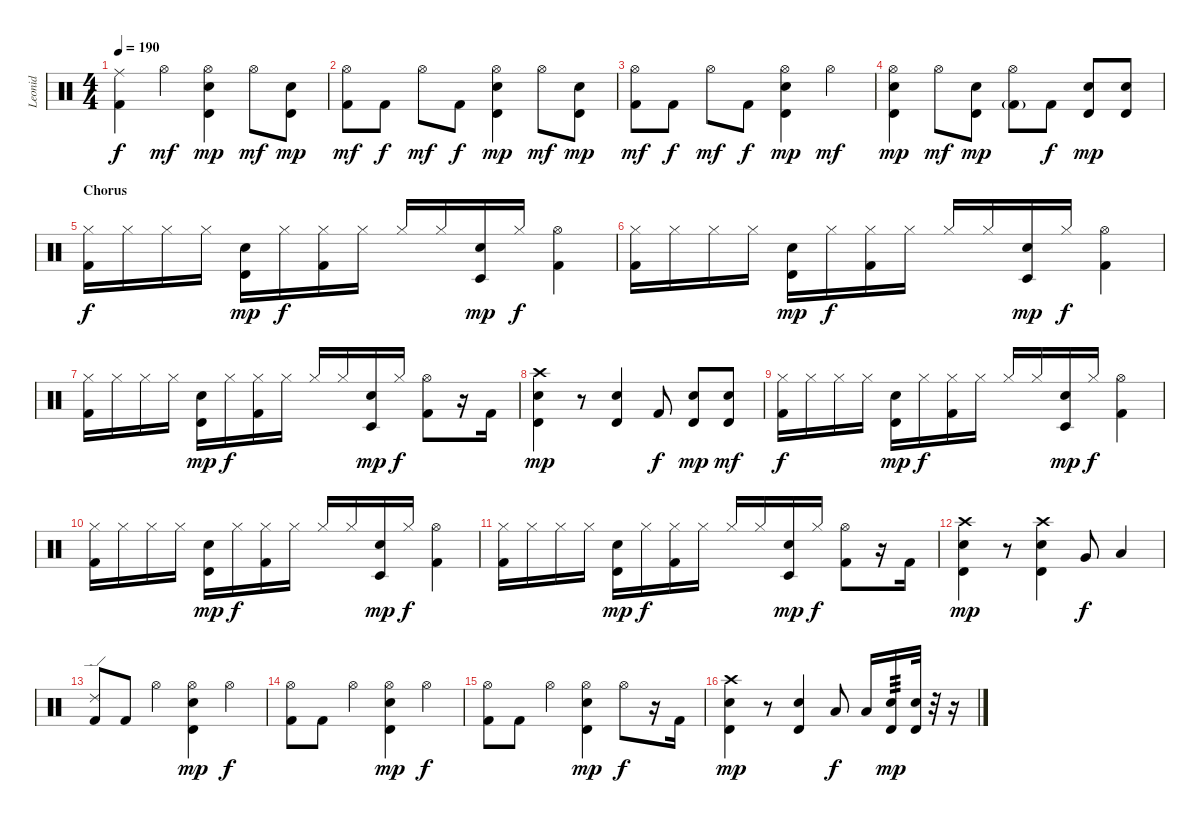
\track ("Leonid" "Leonid") {instrument percussion}
\staff {score}
\articulation defaults
\ts (4 4)
\tempo 190
\clef neutral
\ks c
("Ride (middle)" "Kick (hit) 2").4{dy f} "Hi-Hat (open)".4{dy mf} ("Hi-Hat (open)" "Timbale high (hit)" "Electric Snare (hit)").4{dy mp} "Hi-Hat (open)".8{dy mf} ("Timbale high (hit)" "Electric Snare (hit)").8{dy mp} |
("Hi-Hat (open)" "Kick (hit) 2").8{dy mf} "Kick (hit) 2".8{dy f} "Hi-Hat (open)".8{dy mf} "Kick (hit) 2".8{dy f} ("Hi-Hat (open)" "Timbale high (hit)" "Electric Snare (hit)").4{dy mp} "Hi-Hat (open)".8{dy mf} ("Timbale high (hit)" "Electric Snare (hit)").8{dy mp} |
("Hi-Hat (open)" "Kick (hit) 2").8{dy mf} "Kick (hit) 2".8{dy f} "Hi-Hat (open)".8{dy mf} "Kick (hit) 2".8{dy f} ("Hi-Hat (open)" "Timbale high (hit)" "Electric Snare (hit)").4{dy mp} "Hi-Hat (open)".4{dy mf} |
("Hi-Hat (open)" "Timbale high (hit)" "Electric Snare (hit)").4{dy mp} "Hi-Hat (open)".8{dy mf} ("Timbale high (hit)" "Electric Snare (hit)").8{dy mp} ("Hi-Hat (open)" "Kick (hit) 2"{g}).8 "Kick (hit) 2".8{dy f} ("Timbale high (hit)" "Electric Snare (hit)").8{dy mp} ("Timbale high (hit)" "Electric Snare (hit)").8 |
\section ("" "Chorus")
("Hi-Hat (closed)" "Kick (hit) 2").16{dy f} "Hi-Hat (closed)".16 "Hi-Hat (closed)".16 "Hi-Hat (closed)".16 ("Timbale high (hit)" "Electric Snare (hit)").16{dy mp} "Hi-Hat (closed)".16{dy f} ("Hi-Hat (closed)" "Kick (hit) 2").16 "Hi-Hat (closed)".16 "Hi-Hat (closed)".16 "Hi-Hat (closed)".16 ("Timbale low (hit)" "Electric Snare (hit)").16{dy mp} "Hi-Hat (closed)".16{dy f} ("Hi-Hat (open)" "Kick (hit) 2").4 |
("Hi-Hat (closed)" "Kick (hit) 2").16 "Hi-Hat (closed)".16 "Hi-Hat (closed)".16 "Hi-Hat (closed)".16 ("Timbale high (hit)" "Electric Snare (hit)").16{dy mp} "Hi-Hat (closed)".16{dy f} ("Hi-Hat (closed)" "Kick (hit) 2").16 "Hi-Hat (closed)".16 "Hi-Hat (closed)".16 "Hi-Hat (closed)".16 ("Timbale low (hit)" "Electric Snare (hit)").16{dy mp} "Hi-Hat (closed)".16{dy f} ("Hi-Hat (open)" "Kick (hit) 2").4 |
("Hi-Hat (closed)" "Kick (hit) 2").16 "Hi-Hat (closed)".16 "Hi-Hat (closed)".16 "Hi-Hat (closed)".16 ("Timbale high (hit)" "Electric Snare (hit)").16{dy mp} "Hi-Hat (closed)".16{dy f} ("Hi-Hat (closed)" "Kick (hit) 2").16 "Hi-Hat (closed)".16 "Hi-Hat (closed)".16 "Hi-Hat (closed)".16 ("Timbale low (hit)" "Electric Snare (hit)").16{dy mp} "Hi-Hat (closed)".16{dy f} ("Hi-Hat (open)" "Kick (hit) 2").8 r.16 "Kick (hit) 2".16 |
("Crash high (hit)" "Timbale high (hit)" "Electric Snare (hit)").4{dy mp} r.8 ("Timbale high (hit)" "Electric Snare (hit)").4 "Kick (hit) 2".8{dy f} ("Timbale high (hit)" "Electric Snare (hit)").8{dy mp} ("Timbale high (hit)" "Electric Snare (hit)").8{dy mf} |
("Hi-Hat (closed)" "Kick (hit) 2").16{dy f} "Hi-Hat (closed)".16 "Hi-Hat (closed)".16 "Hi-Hat (closed)".16 ("Timbale high (hit)" "Electric Snare (hit)").16{dy mp} "Hi-Hat (closed)".16{dy f} ("Hi-Hat (closed)" "Kick (hit) 2").16 "Hi-Hat (closed)".16 "Hi-Hat (closed)".16 "Hi-Hat (closed)".16 ("Timbale low (hit)" "Electric Snare (hit)").16{dy mp} "Hi-Hat (closed)".16{dy f} ("Hi-Hat (open)" "Kick (hit) 2").4 |
("Hi-Hat (closed)" "Kick (hit) 2").16 "Hi-Hat (closed)".16 "Hi-Hat (closed)".16 "Hi-Hat (closed)".16 ("Timbale high (hit)" "Electric Snare (hit)").16{dy mp} "Hi-Hat (closed)".16{dy f} ("Hi-Hat (closed)" "Kick (hit) 2").16 "Hi-Hat (closed)".16 "Hi-Hat (closed)".16 "Hi-Hat (closed)".16 ("Timbale low (hit)" "Electric Snare (hit)").16{dy mp} "Hi-Hat (closed)".16{dy f} ("Hi-Hat (open)" "Kick (hit) 2").4 |
("Hi-Hat (closed)" "Kick (hit) 2").16 "Hi-Hat (closed)".16 "Hi-Hat (closed)".16 "Hi-Hat (closed)".16 ("Timbale high (hit)" "Electric Snare (hit)").16{dy mp} "Hi-Hat (closed)".16{dy f} ("Hi-Hat (closed)" "Kick (hit) 2").16 "Hi-Hat (closed)".16 "Hi-Hat (closed)".16 "Hi-Hat (closed)".16 ("Timbale low (hit)" "Electric Snare (hit)").16{dy mp} "Hi-Hat (closed)".16{dy f} ("Hi-Hat (open)" "Kick (hit) 2").8 r.16 "Kick (hit) 2".16 |
("Crash high (hit)" "Timbale high (hit)" "Electric Snare (hit)").4{dy mp} r.8 ("Crash high (hit)" "Timbale high (hit)" "Electric Snare (hit)").4 "Very Low Tom (hit)".8{dy f} "Low Floor Tom (hit)".4 |
("Ride (edge) 2" "Kick (hit) 2").8 "Kick (hit) 2".8 "Hi-Hat (open)".4 ("Hi-Hat (open)" "Timbale high (hit)" "Electric Snare (hit)").4{dy mp} "Hi-Hat (open)".4{dy f} |
("Hi-Hat (open)" "Kick (hit) 2").8 "Kick (hit) 2".8 "Hi-Hat (open)".4 ("Hi-Hat (open)" "Timbale high (hit)" "Electric Snare (hit)").4{dy mp} "Hi-Hat (open)".4{dy f} |
("Hi-Hat (open)" "Kick (hit) 2").8 "Kick (hit) 2".8 "Hi-Hat (open)".4 ("Hi-Hat (open)" "Timbale high (hit)" "Electric Snare (hit)").4{dy mp} "Hi-Hat (open)".8{dy f} r.16 "Kick (hit) 2".16 |
("Crash high (hit)" "Timbale high (hit)" "Electric Snare (hit)").4{dy mp} r.8 ("Timbale high (hit)" "Electric Snare (hit)").4 "Low Tom (hit)".8{dy f} "Low Floor Tom (hit)".16 ("Timbale high (hit)" "Electric Snare (hit)").16{tp 3 dy mp} ("Timbale high (hit)" "Electric Snare (hit)").32 r.32 r.16
